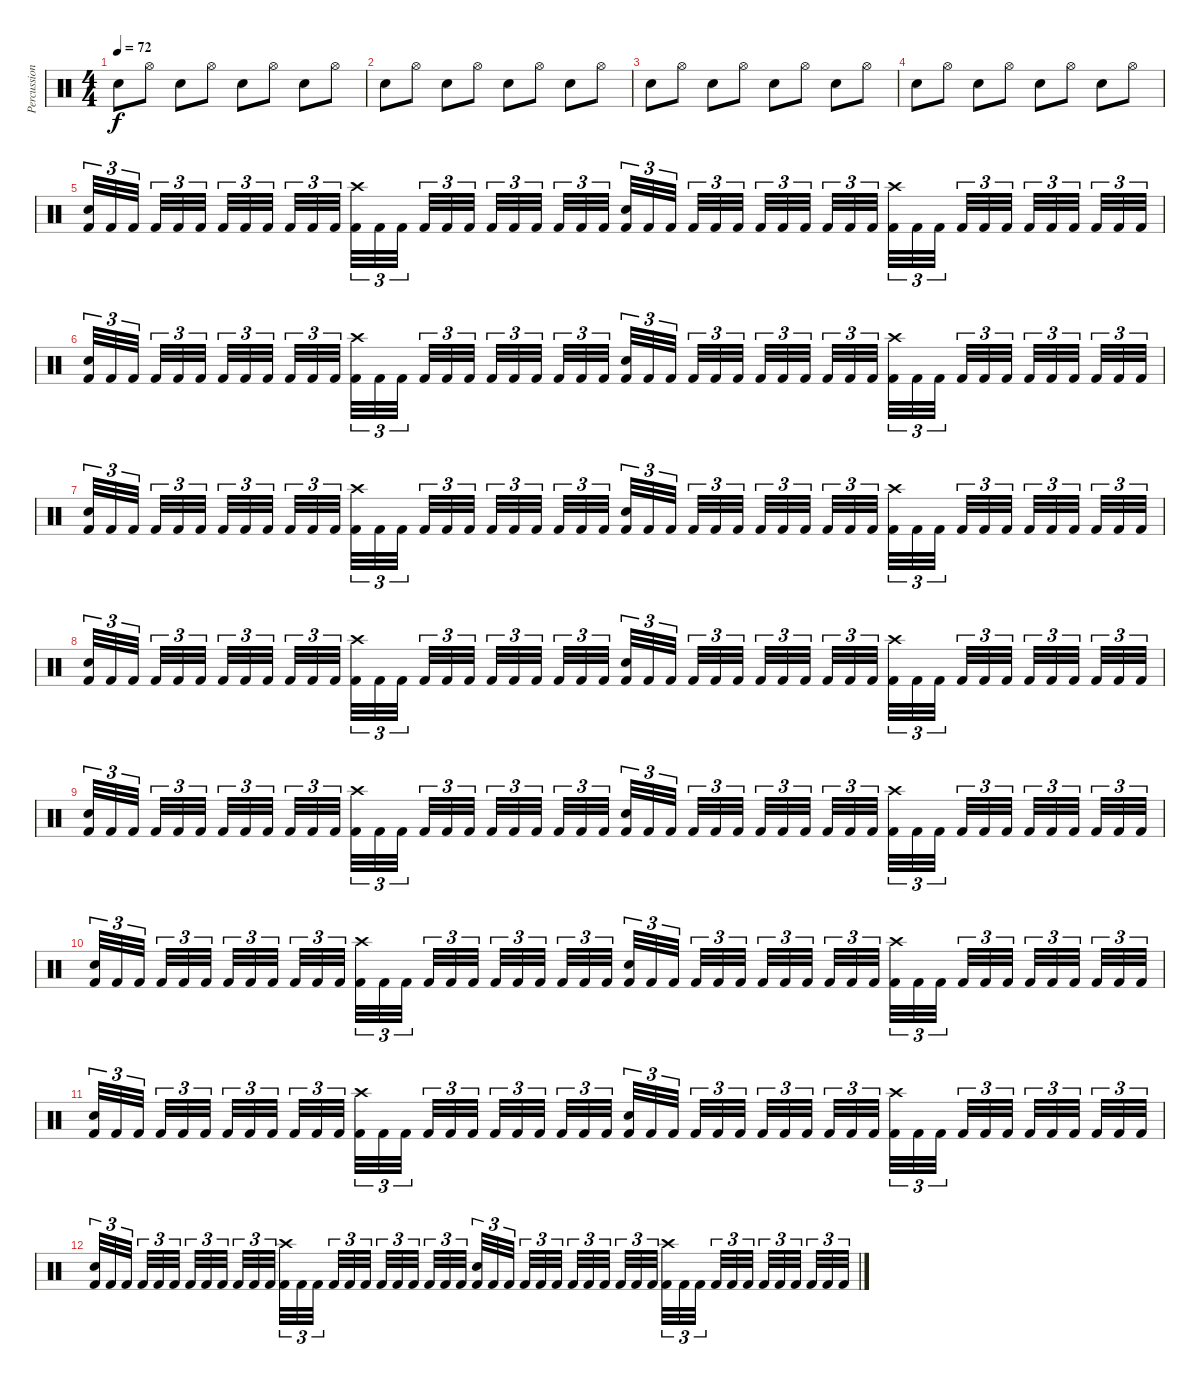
\track ("Percussion" "Percussion") {instrument percussion}
\staff {score}
\articulation defaults
\ts (4 4)
\tempo 72
\clef neutral
\ks c "Snare (hit) 2".8{dy f} "Hi-Hat (open)".8 "Snare (hit) 2".8 "Hi-Hat (open)".8 "Snare (hit) 2".8 "Hi-Hat (open)".8 "Snare (hit) 2".8 "Hi-Hat (open)".8
|
"Snare (hit) 2".8 "Hi-Hat (open)".8 "Snare (hit) 2".8 "Hi-Hat (open)".8 "Snare (hit) 2".8 "Hi-Hat (open)".8 "Snare (hit) 2".8 "Hi-Hat (open)".8 |
"Snare (hit) 2".8 "Hi-Hat (open)".8 "Snare (hit) 2".8 "Hi-Hat (open)".8 "Snare (hit) 2".8 "Hi-Hat (open)".8 "Snare (hit) 2".8 "Hi-Hat (open)".8 |
"Snare (hit) 2".8 "Hi-Hat (open)".8 "Snare (hit) 2".8 "Hi-Hat (open)".8 "Snare (hit) 2".8 "Hi-Hat (open)".8 "Snare (hit) 2".8 "Hi-Hat (open)".8 |
("Snare (hit) 2" "Kick (hit) 2").32{tu (3 2)} "Kick (hit) 2".32{tu (3 2)} "Kick (hit) 2".32{tu (3 2) beam splitsecondary} "Kick (hit) 2".32{tu (3 2)} "Kick (hit) 2".32{tu (3 2)} "Kick (hit) 2".32{tu (3 2) beam splitsecondary} "Kick (hit) 2".32{tu (3 2)} "Kick (hit) 2".32{tu (3 2)} "Kick (hit) 2".32{tu (3 2) beam splitsecondary} "Kick (hit) 2".32{tu (3 2)} "Kick (hit) 2".32{tu (3 2)} "Kick (hit) 2".32{tu (3 2)} ("Crash high (hit)" "Kick (hit) 2").32{tu (3 2)} "Kick (hit) 2".32{tu (3 2)} "Kick (hit) 2".32{tu (3 2) beam splitsecondary} "Kick (hit) 2".32{tu (3 2)} "Kick (hit) 2".32{tu (3 2)} "Kick (hit) 2".32{tu (3 2) beam splitsecondary} "Kick (hit) 2".32{tu (3 2)} "Kick (hit) 2".32{tu (3 2)} "Kick (hit) 2".32{tu (3 2) beam splitsecondary} "Kick (hit) 2".32{tu (3 2)} "Kick (hit) 2".32{tu (3 2)} "Kick (hit) 2".32{tu (3 2)} ("Snare (hit) 2" "Kick (hit) 2").32{tu (3 2)} "Kick (hit) 2".32{tu (3 2)} "Kick (hit) 2".32{tu (3 2) beam splitsecondary} "Kick (hit) 2".32{tu (3 2)} "Kick (hit) 2".32{tu (3 2)} "Kick (hit) 2".32{tu (3 2) beam splitsecondary} "Kick (hit) 2".32{tu (3 2)} "Kick (hit) 2".32{tu (3 2)} "Kick (hit) 2".32{tu (3 2) beam splitsecondary} "Kick (hit) 2".32{tu (3 2)} "Kick (hit) 2".32{tu (3 2)} "Kick (hit) 2".32{tu (3 2)} ("Crash high (hit)" "Kick (hit) 2").32{tu (3 2)} "Kick (hit) 2".32{tu (3 2)} "Kick (hit) 2".32{tu (3 2) beam splitsecondary} "Kick (hit) 2".32{tu (3 2)} "Kick (hit) 2".32{tu (3 2)} "Kick (hit) 2".32{tu (3 2) beam splitsecondary} "Kick (hit) 2".32{tu (3 2)} "Kick (hit) 2".32{tu (3 2)} "Kick (hit) 2".32{tu (3 2) beam splitsecondary} "Kick (hit) 2".32{tu (3 2)} "Kick (hit) 2".32{tu (3 2)} "Kick (hit) 2".32{tu (3 2)} |
("Snare (hit) 2" "Kick (hit) 2").32{tu (3 2)} "Kick (hit) 2".32{tu (3 2)} "Kick (hit) 2".32{tu (3 2) beam splitsecondary} "Kick (hit) 2".32{tu (3 2)} "Kick (hit) 2".32{tu (3 2)} "Kick (hit) 2".32{tu (3 2) beam splitsecondary} "Kick (hit) 2".32{tu (3 2)} "Kick (hit) 2".32{tu (3 2)} "Kick (hit) 2".32{tu (3 2) beam splitsecondary} "Kick (hit) 2".32{tu (3 2)} "Kick (hit) 2".32{tu (3 2)} "Kick (hit) 2".32{tu (3 2)} ("Crash high (hit)" "Kick (hit) 2").32{tu (3 2)} "Kick (hit) 2".32{tu (3 2)} "Kick (hit) 2".32{tu (3 2) beam splitsecondary} "Kick (hit) 2".32{tu (3 2)} "Kick (hit) 2".32{tu (3 2)} "Kick (hit) 2".32{tu (3 2) beam splitsecondary} "Kick (hit) 2".32{tu (3 2)} "Kick (hit) 2".32{tu (3 2)} "Kick (hit) 2".32{tu (3 2) beam splitsecondary} "Kick (hit) 2".32{tu (3 2)} "Kick (hit) 2".32{tu (3 2)} "Kick (hit) 2".32{tu (3 2)} ("Snare (hit) 2" "Kick (hit) 2").32{tu (3 2)} "Kick (hit) 2".32{tu (3 2)} "Kick (hit) 2".32{tu (3 2) beam splitsecondary} "Kick (hit) 2".32{tu (3 2)} "Kick (hit) 2".32{tu (3 2)} "Kick (hit) 2".32{tu (3 2) beam splitsecondary} "Kick (hit) 2".32{tu (3 2)} "Kick (hit) 2".32{tu (3 2)} "Kick (hit) 2".32{tu (3 2) beam splitsecondary} "Kick (hit) 2".32{tu (3 2)} "Kick (hit) 2".32{tu (3 2)} "Kick (hit) 2".32{tu (3 2)} ("Crash high (hit)" "Kick (hit) 2").32{tu (3 2)} "Kick (hit) 2".32{tu (3 2)} "Kick (hit) 2".32{tu (3 2) beam splitsecondary} "Kick (hit) 2".32{tu (3 2)} "Kick (hit) 2".32{tu (3 2)} "Kick (hit) 2".32{tu (3 2) beam splitsecondary} "Kick (hit) 2".32{tu (3 2)} "Kick (hit) 2".32{tu (3 2)} "Kick (hit) 2".32{tu (3 2) beam splitsecondary} "Kick (hit) 2".32{tu (3 2)} "Kick (hit) 2".32{tu (3 2)} "Kick (hit) 2".32{tu (3 2)} |
("Snare (hit) 2" "Kick (hit) 2").32{tu (3 2)} "Kick (hit) 2".32{tu (3 2)} "Kick (hit) 2".32{tu (3 2) beam splitsecondary} "Kick (hit) 2".32{tu (3 2)} "Kick (hit) 2".32{tu (3 2)} "Kick (hit) 2".32{tu (3 2) beam splitsecondary} "Kick (hit) 2".32{tu (3 2)} "Kick (hit) 2".32{tu (3 2)} "Kick (hit) 2".32{tu (3 2) beam splitsecondary} "Kick (hit) 2".32{tu (3 2)} "Kick (hit) 2".32{tu (3 2)} "Kick (hit) 2".32{tu (3 2)} ("Crash high (hit)" "Kick (hit) 2").32{tu (3 2)} "Kick (hit) 2".32{tu (3 2)} "Kick (hit) 2".32{tu (3 2) beam splitsecondary} "Kick (hit) 2".32{tu (3 2)} "Kick (hit) 2".32{tu (3 2)} "Kick (hit) 2".32{tu (3 2) beam splitsecondary} "Kick (hit) 2".32{tu (3 2)} "Kick (hit) 2".32{tu (3 2)} "Kick (hit) 2".32{tu (3 2) beam splitsecondary} "Kick (hit) 2".32{tu (3 2)} "Kick (hit) 2".32{tu (3 2)} "Kick (hit) 2".32{tu (3 2)} ("Snare (hit) 2" "Kick (hit) 2").32{tu (3 2)} "Kick (hit) 2".32{tu (3 2)} "Kick (hit) 2".32{tu (3 2) beam splitsecondary} "Kick (hit) 2".32{tu (3 2)} "Kick (hit) 2".32{tu (3 2)} "Kick (hit) 2".32{tu (3 2) beam splitsecondary} "Kick (hit) 2".32{tu (3 2)} "Kick (hit) 2".32{tu (3 2)} "Kick (hit) 2".32{tu (3 2) beam splitsecondary} "Kick (hit) 2".32{tu (3 2)} "Kick (hit) 2".32{tu (3 2)} "Kick (hit) 2".32{tu (3 2)} ("Crash high (hit)" "Kick (hit) 2").32{tu (3 2)} "Kick (hit) 2".32{tu (3 2)} "Kick (hit) 2".32{tu (3 2) beam splitsecondary} "Kick (hit) 2".32{tu (3 2)} "Kick (hit) 2".32{tu (3 2)} "Kick (hit) 2".32{tu (3 2) beam splitsecondary} "Kick (hit) 2".32{tu (3 2)} "Kick (hit) 2".32{tu (3 2)} "Kick (hit) 2".32{tu (3 2) beam splitsecondary} "Kick (hit) 2".32{tu (3 2)} "Kick (hit) 2".32{tu (3 2)} "Kick (hit) 2".32{tu (3 2)} |
("Snare (hit) 2" "Kick (hit) 2").32{tu (3 2)} "Kick (hit) 2".32{tu (3 2)} "Kick (hit) 2".32{tu (3 2) beam splitsecondary} "Kick (hit) 2".32{tu (3 2)} "Kick (hit) 2".32{tu (3 2)} "Kick (hit) 2".32{tu (3 2) beam splitsecondary} "Kick (hit) 2".32{tu (3 2)} "Kick (hit) 2".32{tu (3 2)} "Kick (hit) 2".32{tu (3 2) beam splitsecondary} "Kick (hit) 2".32{tu (3 2)} "Kick (hit) 2".32{tu (3 2)} "Kick (hit) 2".32{tu (3 2)} ("Crash high (hit)" "Kick (hit) 2").32{tu (3 2)} "Kick (hit) 2".32{tu (3 2)} "Kick (hit) 2".32{tu (3 2) beam splitsecondary} "Kick (hit) 2".32{tu (3 2)} "Kick (hit) 2".32{tu (3 2)} "Kick (hit) 2".32{tu (3 2) beam splitsecondary} "Kick (hit) 2".32{tu (3 2)} "Kick (hit) 2".32{tu (3 2)} "Kick (hit) 2".32{tu (3 2) beam splitsecondary} "Kick (hit) 2".32{tu (3 2)} "Kick (hit) 2".32{tu (3 2)} "Kick (hit) 2".32{tu (3 2)} ("Snare (hit) 2" "Kick (hit) 2").32{tu (3 2)} "Kick (hit) 2".32{tu (3 2)} "Kick (hit) 2".32{tu (3 2) beam splitsecondary} "Kick (hit) 2".32{tu (3 2)} "Kick (hit) 2".32{tu (3 2)} "Kick (hit) 2".32{tu (3 2) beam splitsecondary} "Kick (hit) 2".32{tu (3 2)} "Kick (hit) 2".32{tu (3 2)} "Kick (hit) 2".32{tu (3 2) beam splitsecondary} "Kick (hit) 2".32{tu (3 2)} "Kick (hit) 2".32{tu (3 2)} "Kick (hit) 2".32{tu (3 2)} ("Crash high (hit)" "Kick (hit) 2").32{tu (3 2)} "Kick (hit) 2".32{tu (3 2)} "Kick (hit) 2".32{tu (3 2) beam splitsecondary} "Kick (hit) 2".32{tu (3 2)} "Kick (hit) 2".32{tu (3 2)} "Kick (hit) 2".32{tu (3 2) beam splitsecondary} "Kick (hit) 2".32{tu (3 2)} "Kick (hit) 2".32{tu (3 2)} "Kick (hit) 2".32{tu (3 2) beam splitsecondary} "Kick (hit) 2".32{tu (3 2)} "Kick (hit) 2".32{tu (3 2)} "Kick (hit) 2".32{tu (3 2)} |
("Snare (hit) 2" "Kick (hit) 2").32{tu (3 2)} "Kick (hit) 2".32{tu (3 2)} "Kick (hit) 2".32{tu (3 2) beam splitsecondary} "Kick (hit) 2".32{tu (3 2)} "Kick (hit) 2".32{tu (3 2)} "Kick (hit) 2".32{tu (3 2) beam splitsecondary} "Kick (hit) 2".32{tu (3 2)} "Kick (hit) 2".32{tu (3 2)} "Kick (hit) 2".32{tu (3 2) beam splitsecondary} "Kick (hit) 2".32{tu (3 2)} "Kick (hit) 2".32{tu (3 2)} "Kick (hit) 2".32{tu (3 2)} ("Crash high (hit)" "Kick (hit) 2").32{tu (3 2)} "Kick (hit) 2".32{tu (3 2)} "Kick (hit) 2".32{tu (3 2) beam splitsecondary} "Kick (hit) 2".32{tu (3 2)} "Kick (hit) 2".32{tu (3 2)} "Kick (hit) 2".32{tu (3 2) beam splitsecondary} "Kick (hit) 2".32{tu (3 2)} "Kick (hit) 2".32{tu (3 2)} "Kick (hit) 2".32{tu (3 2) beam splitsecondary} "Kick (hit) 2".32{tu (3 2)} "Kick (hit) 2".32{tu (3 2)} "Kick (hit) 2".32{tu (3 2)} ("Snare (hit) 2" "Kick (hit) 2").32{tu (3 2)} "Kick (hit) 2".32{tu (3 2)} "Kick (hit) 2".32{tu (3 2) beam splitsecondary} "Kick (hit) 2".32{tu (3 2)} "Kick (hit) 2".32{tu (3 2)} "Kick (hit) 2".32{tu (3 2) beam splitsecondary} "Kick (hit) 2".32{tu (3 2)} "Kick (hit) 2".32{tu (3 2)} "Kick (hit) 2".32{tu (3 2) beam splitsecondary} "Kick (hit) 2".32{tu (3 2)} "Kick (hit) 2".32{tu (3 2)} "Kick (hit) 2".32{tu (3 2)} ("Crash high (hit)" "Kick (hit) 2").32{tu (3 2)} "Kick (hit) 2".32{tu (3 2)} "Kick (hit) 2".32{tu (3 2) beam splitsecondary} "Kick (hit) 2".32{tu (3 2)} "Kick (hit) 2".32{tu (3 2)} "Kick (hit) 2".32{tu (3 2) beam splitsecondary} "Kick (hit) 2".32{tu (3 2)} "Kick (hit) 2".32{tu (3 2)} "Kick (hit) 2".32{tu (3 2) beam splitsecondary} "Kick (hit) 2".32{tu (3 2)} "Kick (hit) 2".32{tu (3 2)} "Kick (hit) 2".32{tu (3 2)} |
("Snare (hit) 2" "Kick (hit) 2").32{tu (3 2)} "Kick (hit) 2".32{tu (3 2)} "Kick (hit) 2".32{tu (3 2) beam splitsecondary} "Kick (hit) 2".32{tu (3 2)} "Kick (hit) 2".32{tu (3 2)} "Kick (hit) 2".32{tu (3 2) beam splitsecondary} "Kick (hit) 2".32{tu (3 2)} "Kick (hit) 2".32{tu (3 2)} "Kick (hit) 2".32{tu (3 2) beam splitsecondary} "Kick (hit) 2".32{tu (3 2)} "Kick (hit) 2".32{tu (3 2)} "Kick (hit) 2".32{tu (3 2)} ("Crash high (hit)" "Kick (hit) 2").32{tu (3 2)} "Kick (hit) 2".32{tu (3 2)} "Kick (hit) 2".32{tu (3 2) beam splitsecondary} "Kick (hit) 2".32{tu (3 2)} "Kick (hit) 2".32{tu (3 2)} "Kick (hit) 2".32{tu (3 2) beam splitsecondary} "Kick (hit) 2".32{tu (3 2)} "Kick (hit) 2".32{tu (3 2)} "Kick (hit) 2".32{tu (3 2) beam splitsecondary} "Kick (hit) 2".32{tu (3 2)} "Kick (hit) 2".32{tu (3 2)} "Kick (hit) 2".32{tu (3 2)} ("Snare (hit) 2" "Kick (hit) 2").32{tu (3 2)} "Kick (hit) 2".32{tu (3 2)} "Kick (hit) 2".32{tu (3 2) beam splitsecondary} "Kick (hit) 2".32{tu (3 2)} "Kick (hit) 2".32{tu (3 2)} "Kick (hit) 2".32{tu (3 2) beam splitsecondary} "Kick (hit) 2".32{tu (3 2)} "Kick (hit) 2".32{tu (3 2)} "Kick (hit) 2".32{tu (3 2) beam splitsecondary} "Kick (hit) 2".32{tu (3 2)} "Kick (hit) 2".32{tu (3 2)} "Kick (hit) 2".32{tu (3 2)} ("Crash high (hit)" "Kick (hit) 2").32{tu (3 2)} "Kick (hit) 2".32{tu (3 2)} "Kick (hit) 2".32{tu (3 2) beam splitsecondary} "Kick (hit) 2".32{tu (3 2)} "Kick (hit) 2".32{tu (3 2)} "Kick (hit) 2".32{tu (3 2) beam splitsecondary} "Kick (hit) 2".32{tu (3 2)} "Kick (hit) 2".32{tu (3 2)} "Kick (hit) 2".32{tu (3 2) beam splitsecondary} "Kick (hit) 2".32{tu (3 2)} "Kick (hit) 2".32{tu (3 2)} "Kick (hit) 2".32{tu (3 2)} |
("Snare (hit) 2" "Kick (hit) 2").32{tu (3 2)} "Kick (hit) 2".32{tu (3 2)} "Kick (hit) 2".32{tu (3 2) beam splitsecondary} "Kick (hit) 2".32{tu (3 2)} "Kick (hit) 2".32{tu (3 2)} "Kick (hit) 2".32{tu (3 2) beam splitsecondary} "Kick (hit) 2".32{tu (3 2)} "Kick (hit) 2".32{tu (3 2)} "Kick (hit) 2".32{tu (3 2) beam splitsecondary} "Kick (hit) 2".32{tu (3 2)} "Kick (hit) 2".32{tu (3 2)} "Kick (hit) 2".32{tu (3 2)} ("Crash high (hit)" "Kick (hit) 2").32{tu (3 2)} "Kick (hit) 2".32{tu (3 2)} "Kick (hit) 2".32{tu (3 2) beam splitsecondary} "Kick (hit) 2".32{tu (3 2)} "Kick (hit) 2".32{tu (3 2)} "Kick (hit) 2".32{tu (3 2) beam splitsecondary} "Kick (hit) 2".32{tu (3 2)} "Kick (hit) 2".32{tu (3 2)} "Kick (hit) 2".32{tu (3 2) beam splitsecondary} "Kick (hit) 2".32{tu (3 2)} "Kick (hit) 2".32{tu (3 2)} "Kick (hit) 2".32{tu (3 2)} ("Snare (hit) 2" "Kick (hit) 2").32{tu (3 2)} "Kick (hit) 2".32{tu (3 2)} "Kick (hit) 2".32{tu (3 2) beam splitsecondary} "Kick (hit) 2".32{tu (3 2)} "Kick (hit) 2".32{tu (3 2)} "Kick (hit) 2".32{tu (3 2) beam splitsecondary} "Kick (hit) 2".32{tu (3 2)} "Kick (hit) 2".32{tu (3 2)} "Kick (hit) 2".32{tu (3 2) beam splitsecondary} "Kick (hit) 2".32{tu (3 2)} "Kick (hit) 2".32{tu (3 2)} "Kick (hit) 2".32{tu (3 2)} ("Crash high (hit)" "Kick (hit) 2").32{tu (3 2)} "Kick (hit) 2".32{tu (3 2)} "Kick (hit) 2".32{tu (3 2) beam splitsecondary} "Kick (hit) 2".32{tu (3 2)} "Kick (hit) 2".32{tu (3 2)} "Kick (hit) 2".32{tu (3 2) beam splitsecondary} "Kick (hit) 2".32{tu (3 2)} "Kick (hit) 2".32{tu (3 2)} "Kick (hit) 2".32{tu (3 2) beam splitsecondary} "Kick (hit) 2".32{tu (3 2)} "Kick (hit) 2".32{tu (3 2)} "Kick (hit) 2".32{tu (3 2)} |
("Snare (hit) 2" "Kick (hit) 2").32{tu (3 2)} "Kick (hit) 2".32{tu (3 2)} "Kick (hit) 2".32{tu (3 2) beam splitsecondary} "Kick (hit) 2".32{tu (3 2)} "Kick (hit) 2".32{tu (3 2)} "Kick (hit) 2".32{tu (3 2) beam splitsecondary} "Kick (hit) 2".32{tu (3 2)} "Kick (hit) 2".32{tu (3 2)} "Kick (hit) 2".32{tu (3 2) beam splitsecondary} "Kick (hit) 2".32{tu (3 2)} "Kick (hit) 2".32{tu (3 2)} "Kick (hit) 2".32{tu (3 2)} ("Crash high (hit)" "Kick (hit) 2").32{tu (3 2)} "Kick (hit) 2".32{tu (3 2)} "Kick (hit) 2".32{tu (3 2) beam splitsecondary} "Kick (hit) 2".32{tu (3 2)} "Kick (hit) 2".32{tu (3 2)} "Kick (hit) 2".32{tu (3 2) beam splitsecondary} "Kick (hit) 2".32{tu (3 2)} "Kick (hit) 2".32{tu (3 2)} "Kick (hit) 2".32{tu (3 2) beam splitsecondary} "Kick (hit) 2".32{tu (3 2)} "Kick (hit) 2".32{tu (3 2)} "Kick (hit) 2".32{tu (3 2)} ("Snare (hit) 2" "Kick (hit) 2").32{tu (3 2)} "Kick (hit) 2".32{tu (3 2)} "Kick (hit) 2".32{tu (3 2) beam splitsecondary} "Kick (hit) 2".32{tu (3 2)} "Kick (hit) 2".32{tu (3 2)} "Kick (hit) 2".32{tu (3 2) beam splitsecondary} "Kick (hit) 2".32{tu (3 2)} "Kick (hit) 2".32{tu (3 2)} "Kick (hit) 2".32{tu (3 2) beam splitsecondary} "Kick (hit) 2".32{tu (3 2)} "Kick (hit) 2".32{tu (3 2)} "Kick (hit) 2".32{tu (3 2)} ("Crash high (hit)" "Kick (hit) 2").32{tu (3 2)} "Kick (hit) 2".32{tu (3 2)} "Kick (hit) 2".32{tu (3 2) beam splitsecondary} "Kick (hit) 2".32{tu (3 2)} "Kick (hit) 2".32{tu (3 2)} "Kick (hit) 2".32{tu (3 2) beam splitsecondary} "Kick (hit) 2".32{tu (3 2)} "Kick (hit) 2".32{tu (3 2)} "Kick (hit) 2".32{tu (3 2) beam splitsecondary} "Kick (hit) 2".32{tu (3 2)} "Kick (hit) 2".32{tu (3 2)} "Kick (hit) 2".32{tu (3 2)}
